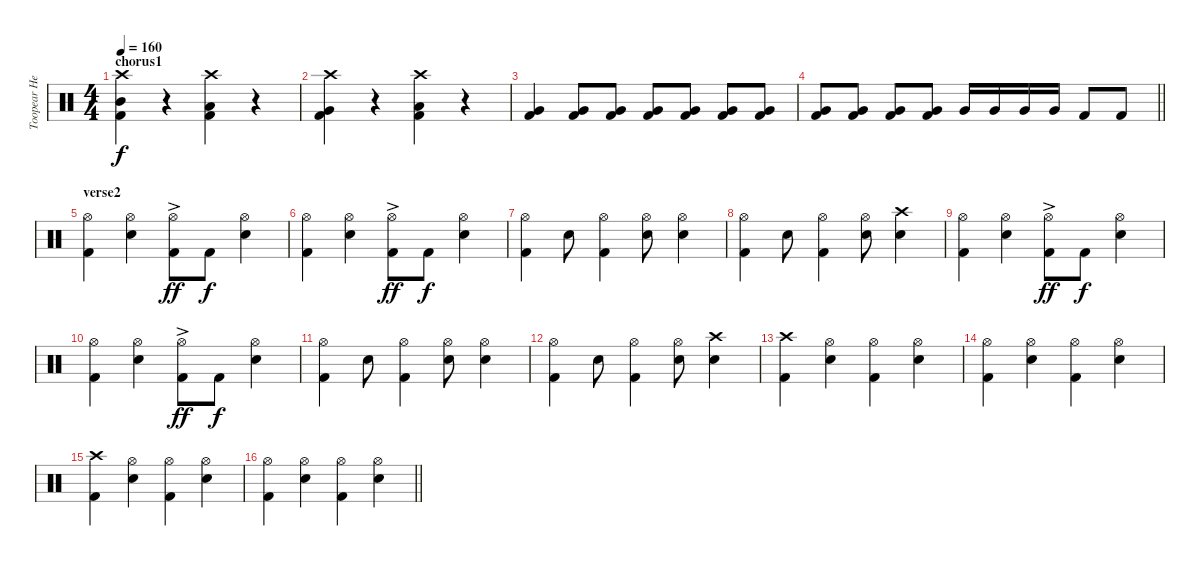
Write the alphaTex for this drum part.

\track ("Toopear Headon" "Toopear He") {instrument percussion}
\staff {score}
\articulation defaults
\ts (4 4)
\section ("" "chorus1")
\tempo 160
\clef neutral
\ks c
("Crash high (hit)" "Mid Tom (hit)" "Kick (hit) 2").4{dy f} r.4 ("Crash high (hit)" "Low Tom (hit)" "Kick (hit) 2").4 r.4 |
("Crash high (hit)" "Very Low Tom (hit)" "Kick (hit) 2").4 r.4 ("Crash high (hit)" "Low Floor Tom (hit)" "Kick (hit) 2").4 r.4 |
("Very Low Tom (hit)" "Kick (hit) 2").4 ("Very Low Tom (hit)" "Kick (hit) 2").8 ("Very Low Tom (hit)" "Kick (hit) 2").8 ("Very Low Tom (hit)" "Kick (hit) 2").8 ("Very Low Tom (hit)" "Kick (hit) 2").8 ("Very Low Tom (hit)" "Kick (hit) 2").8 ("Very Low Tom (hit)" "Kick (hit) 2").8 |
\barLineRight lightlight
("Very Low Tom (hit)" "Kick (hit) 2").8 ("Very Low Tom (hit)" "Kick (hit) 2").8 ("Very Low Tom (hit)" "Kick (hit) 2").8 ("Very Low Tom (hit)" "Kick (hit) 2").8 "Very Low Tom (hit)".16 "Very Low Tom (hit)".16 "Very Low Tom (hit)".16 "Very Low Tom (hit)".16 "Kick (hit) 2".8 "Kick (hit) 2".8 |
\section ("" "verse2")
("Hi-Hat (open)" "Kick (hit) 2").4 ("Hi-Hat (open)" "Electric Snare (hit)").4 ("Hi-Hat (open)" "Kick (hit) 2"{ac}).8{dy ff} "Kick (hit) 2".8{dy f} ("Hi-Hat (open)" "Electric Snare (hit)").4 |
("Hi-Hat (open)" "Kick (hit) 2").4 ("Hi-Hat (open)" "Electric Snare (hit)").4 ("Hi-Hat (open)" "Kick (hit) 2"{ac}).8{dy ff} "Kick (hit) 2".8{dy f} ("Hi-Hat (open)" "Electric Snare (hit)").4 |
("Hi-Hat (open)" "Kick (hit) 2").4 "Electric Snare (hit)".8 ("Hi-Hat (open)" "Kick (hit) 2").4 ("Hi-Hat (open)" "Electric Snare (hit)").8 ("Hi-Hat (open)" "Electric Snare (hit)").4 |
("Hi-Hat (open)" "Kick (hit) 2").4 "Electric Snare (hit)".8 ("Hi-Hat (open)" "Kick (hit) 2").4 ("Hi-Hat (open)" "Electric Snare (hit)").8 ("Crash high (hit)" "Electric Snare (hit)").4 |
("Hi-Hat (open)" "Kick (hit) 2").4 ("Hi-Hat (open)" "Electric Snare (hit)").4 ("Hi-Hat (open)" "Kick (hit) 2"{ac}).8{dy ff} "Kick (hit) 2".8{dy f} ("Hi-Hat (open)" "Electric Snare (hit)").4 |
("Hi-Hat (open)" "Kick (hit) 2").4 ("Hi-Hat (open)" "Electric Snare (hit)").4 ("Hi-Hat (open)" "Kick (hit) 2"{ac}).8{dy ff} "Kick (hit) 2".8{dy f} ("Hi-Hat (open)" "Electric Snare (hit)").4 |
("Hi-Hat (open)" "Kick (hit) 2").4 "Electric Snare (hit)".8 ("Hi-Hat (open)" "Kick (hit) 2").4 ("Hi-Hat (open)" "Electric Snare (hit)").8 ("Hi-Hat (open)" "Electric Snare (hit)").4 |
("Hi-Hat (open)" "Kick (hit) 2").4 "Electric Snare (hit)".8 ("Hi-Hat (open)" "Kick (hit) 2").4 ("Hi-Hat (open)" "Electric Snare (hit)").8 ("Crash high (hit)" "Electric Snare (hit)").4 |
("Crash high (hit)" "Kick (hit) 2").4 ("Hi-Hat (open)" "Electric Snare (hit)").4 ("Hi-Hat (open)" "Kick (hit) 2").4 ("Hi-Hat (open)" "Electric Snare (hit)").4 |
("Hi-Hat (open)" "Kick (hit) 2").4 ("Hi-Hat (open)" "Electric Snare (hit)").4 ("Hi-Hat (open)" "Kick (hit) 2").4 ("Hi-Hat (open)" "Electric Snare (hit)").4 |
("Crash high (hit)" "Kick (hit) 2").4 ("Hi-Hat (open)" "Electric Snare (hit)").4 ("Hi-Hat (open)" "Kick (hit) 2").4 ("Hi-Hat (open)" "Electric Snare (hit)").4 |
\barLineRight lightlight
("Hi-Hat (open)" "Kick (hit) 2").4 ("Hi-Hat (open)" "Electric Snare (hit)").4 ("Hi-Hat (open)" "Kick (hit) 2").4 ("Hi-Hat (open)" "Electric Snare (hit)").4
